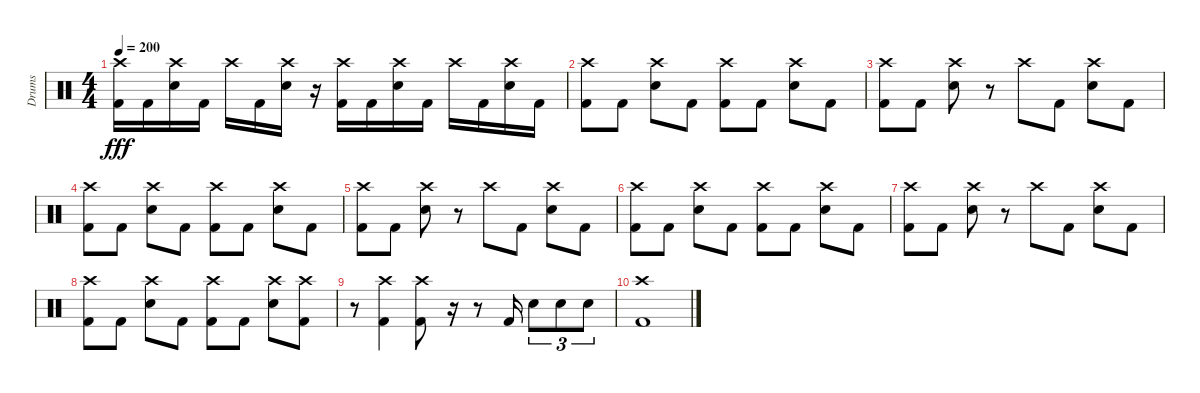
\track ("Drums" "Drums") {instrument percussion}
\staff {score}
\articulation defaults
\ts (4 4)
\tempo 200
\clef neutral
\ks c
("Crash high (hit)" "Kick (hit) 2").16{dy fff} "Kick (hit) 2".16 ("Crash high (hit)" "Electric Snare (hit)").16 "Kick (hit) 2".16 "Crash high (hit)".16 "Kick (hit) 2".16 ("Crash high (hit)" "Electric Snare (hit)").16 r.16 ("Crash high (hit)" "Kick (hit) 2").16 "Kick (hit) 2".16 ("Crash high (hit)" "Electric Snare (hit)").16 "Kick (hit) 2".16 "Crash high (hit)".16 "Kick (hit) 2".16 ("Crash high (hit)" "Electric Snare (hit)").16 "Kick (hit) 2".16 |
("Crash high (hit)" "Kick (hit) 2").8 "Kick (hit) 2".8 ("Crash high (hit)" "Electric Snare (hit)").8 "Kick (hit) 2".8 ("Crash high (hit)" "Kick (hit) 2").8 "Kick (hit) 2".8 ("Crash high (hit)" "Electric Snare (hit)").8 "Kick (hit) 2".8 |
("Crash high (hit)" "Kick (hit) 2").8 "Kick (hit) 2".8 ("Crash high (hit)" "Electric Snare (hit)").8 r.8 "Crash high (hit)".8 "Kick (hit) 2".8 ("Crash high (hit)" "Electric Snare (hit)").8 "Kick (hit) 2".8 |
("Crash high (hit)" "Kick (hit) 2").8 "Kick (hit) 2".8 ("Crash high (hit)" "Electric Snare (hit)").8 "Kick (hit) 2".8 ("Crash high (hit)" "Kick (hit) 2").8 "Kick (hit) 2".8 ("Crash high (hit)" "Electric Snare (hit)").8 "Kick (hit) 2".8 |
("Crash high (hit)" "Kick (hit) 2").8 "Kick (hit) 2".8 ("Crash high (hit)" "Electric Snare (hit)").8 r.8 "Crash high (hit)".8 "Kick (hit) 2".8 ("Crash high (hit)" "Electric Snare (hit)").8 "Kick (hit) 2".8 |
("Crash high (hit)" "Kick (hit) 2").8 "Kick (hit) 2".8 ("Crash high (hit)" "Electric Snare (hit)").8 "Kick (hit) 2".8 ("Crash high (hit)" "Kick (hit) 2").8 "Kick (hit) 2".8 ("Crash high (hit)" "Electric Snare (hit)").8 "Kick (hit) 2".8 |
("Crash high (hit)" "Kick (hit) 2").8 "Kick (hit) 2".8 ("Crash high (hit)" "Electric Snare (hit)").8 r.8 "Crash high (hit)".8 "Kick (hit) 2".8 ("Crash high (hit)" "Electric Snare (hit)").8 "Kick (hit) 2".8 |
("Crash high (hit)" "Kick (hit) 2").8 "Kick (hit) 2".8 ("Crash high (hit)" "Electric Snare (hit)").8 "Kick (hit) 2".8 ("Crash high (hit)" "Kick (hit) 2").8 "Kick (hit) 2".8 ("Crash high (hit)" "Electric Snare (hit)").8 ("Crash high (hit)" "Kick (hit) 2").8 |
r.8 ("Crash high (hit)" "Kick (hit) 2").4 ("Crash high (hit)" "Kick (hit) 2").8 r.16 r.8 "Kick (hit) 2".16 "Electric Snare (hit)".8{tu (3 2)} "Electric Snare (hit)".8{tu (3 2)} "Electric Snare (hit)".8{tu (3 2)} |
("Crash high (hit)" "Kick (hit) 2").1
